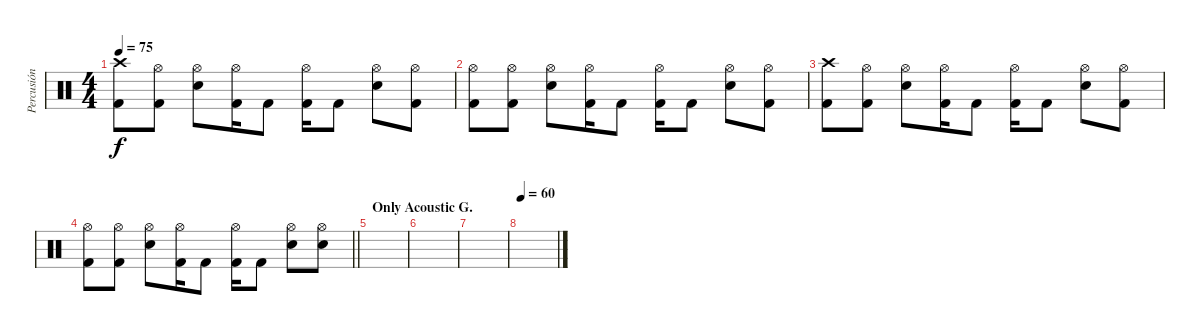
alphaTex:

\track ("Percusión" "Percusión") {instrument percussion}
\staff {score}
\articulation defaults
\ts (4 4)
\tempo 75
\clef neutral
\ks c
("Crash high (hit)" "Kick (hit) 2").8{dy f} ("Hi-Hat (open)" "Kick (hit) 2").8 ("Hi-Hat (open)" "Snare (hit) 2").8 ("Hi-Hat (open)" "Kick (hit) 2").16 "Kick (hit) 2".8 ("Hi-Hat (open)" "Kick (hit) 2").16 "Kick (hit) 2".8 ("Hi-Hat (open)" "Snare (hit) 2").8 ("Hi-Hat (open)" "Kick (hit) 2").8 |
("Hi-Hat (open)" "Kick (hit) 2").8 ("Hi-Hat (open)" "Kick (hit) 2").8 ("Hi-Hat (open)" "Snare (hit) 2").8 ("Hi-Hat (open)" "Kick (hit) 2").16 "Kick (hit) 2".8 ("Hi-Hat (open)" "Kick (hit) 2").16 "Kick (hit) 2".8 ("Hi-Hat (open)" "Snare (hit) 2").8 ("Hi-Hat (open)" "Kick (hit) 2").8 |
("Crash high (hit)" "Kick (hit) 2").8 ("Hi-Hat (open)" "Kick (hit) 2").8 ("Hi-Hat (open)" "Snare (hit) 2").8 ("Hi-Hat (open)" "Kick (hit) 2").16 "Kick (hit) 2".8 ("Hi-Hat (open)" "Kick (hit) 2").16 "Kick (hit) 2".8 ("Hi-Hat (open)" "Snare (hit) 2").8 ("Hi-Hat (open)" "Kick (hit) 2").8 |
\barLineRight lightlight
("Hi-Hat (open)" "Kick (hit) 2").8 ("Hi-Hat (open)" "Kick (hit) 2").8 ("Hi-Hat (open)" "Snare (hit) 2").8 ("Hi-Hat (open)" "Kick (hit) 2").16 "Kick (hit) 2".8 ("Hi-Hat (open)" "Kick (hit) 2").16 "Kick (hit) 2".8 ("Hi-Hat (open)" "Snare (hit) 2").8 ("Hi-Hat (open)" "Snare (hit) 2").8 |
\section ("" "Only Acoustic G.")
|
|
|
\tempo 60
